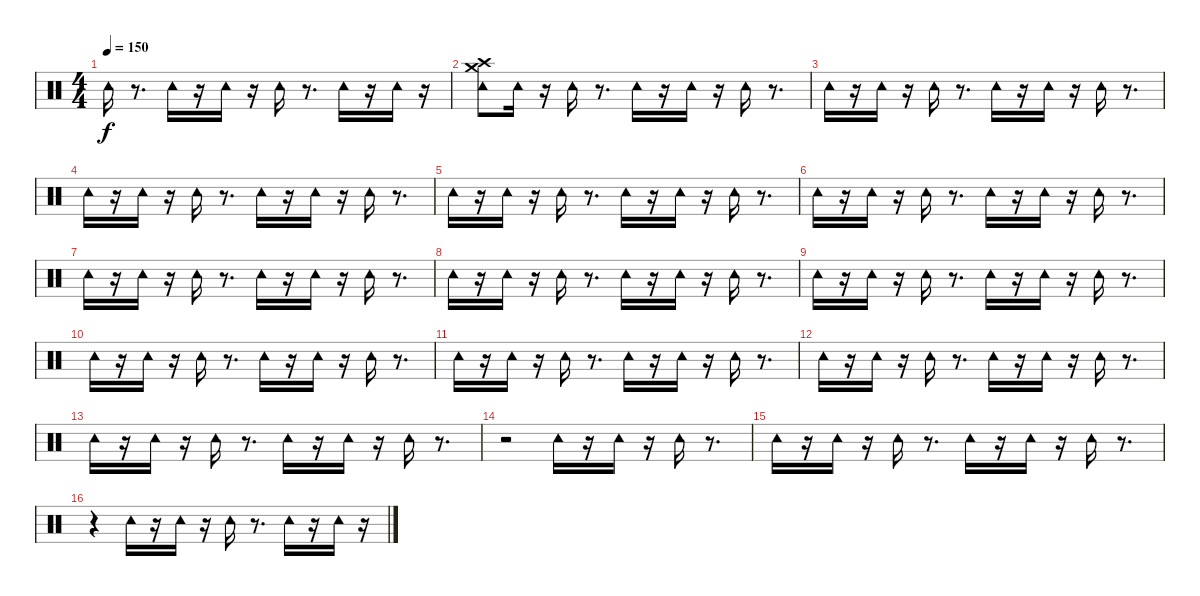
\track "" {instrument percussion}
\staff {score}
\articulation defaults
\ts (4 4)
\tempo 150
\clef neutral
\ks c "Tambourine (hit)".16{dy f}
r.8{d} "Tambourine (hit)".16 r.16 "Tambourine (hit)".16 r.16 "Tambourine (hit)".16 r.8{d} "Tambourine (hit)".16 r.16 "Tambourine (hit)".16 r.16 |
("Crash medium (hit)" "Crash high (hit)" "Tambourine (hit)").8 "Tambourine (hit)".16 r.16 "Tambourine (hit)".16 r.8{d} "Tambourine (hit)".16 r.16 "Tambourine (hit)".16 r.16 "Tambourine (hit)".16 r.8{d} |
"Tambourine (hit)".16 r.16 "Tambourine (hit)".16 r.16 "Tambourine (hit)".16 r.8{d} "Tambourine (hit)".16 r.16 "Tambourine (hit)".16 r.16 "Tambourine (hit)".16 r.8{d} |
"Tambourine (hit)".16 r.16 "Tambourine (hit)".16 r.16 "Tambourine (hit)".16 r.8{d} "Tambourine (hit)".16 r.16 "Tambourine (hit)".16 r.16 "Tambourine (hit)".16 r.8{d} |
"Tambourine (hit)".16 r.16 "Tambourine (hit)".16 r.16 "Tambourine (hit)".16 r.8{d} "Tambourine (hit)".16 r.16 "Tambourine (hit)".16 r.16 "Tambourine (hit)".16 r.8{d} |
"Tambourine (hit)".16 r.16 "Tambourine (hit)".16 r.16 "Tambourine (hit)".16 r.8{d} "Tambourine (hit)".16 r.16 "Tambourine (hit)".16 r.16 "Tambourine (hit)".16 r.8{d} |
"Tambourine (hit)".16 r.16 "Tambourine (hit)".16 r.16 "Tambourine (hit)".16 r.8{d} "Tambourine (hit)".16 r.16 "Tambourine (hit)".16 r.16 "Tambourine (hit)".16 r.8{d} |
"Tambourine (hit)".16 r.16 "Tambourine (hit)".16 r.16 "Tambourine (hit)".16 r.8{d} "Tambourine (hit)".16 r.16 "Tambourine (hit)".16 r.16 "Tambourine (hit)".16 r.8{d} |
"Tambourine (hit)".16 r.16 "Tambourine (hit)".16 r.16 "Tambourine (hit)".16 r.8{d} "Tambourine (hit)".16 r.16 "Tambourine (hit)".16 r.16 "Tambourine (hit)".16 r.8{d} |
"Tambourine (hit)".16 r.16 "Tambourine (hit)".16 r.16 "Tambourine (hit)".16 r.8{d} "Tambourine (hit)".16 r.16 "Tambourine (hit)".16 r.16 "Tambourine (hit)".16 r.8{d} |
"Tambourine (hit)".16 r.16 "Tambourine (hit)".16 r.16 "Tambourine (hit)".16 r.8{d} "Tambourine (hit)".16 r.16 "Tambourine (hit)".16 r.16 "Tambourine (hit)".16 r.8{d} |
"Tambourine (hit)".16 r.16 "Tambourine (hit)".16 r.16 "Tambourine (hit)".16 r.8{d} "Tambourine (hit)".16 r.16 "Tambourine (hit)".16 r.16 "Tambourine (hit)".16 r.8{d} |
"Tambourine (hit)".16 r.16 "Tambourine (hit)".16 r.16 "Tambourine (hit)".16 r.8{d} "Tambourine (hit)".16 r.16 "Tambourine (hit)".16 r.16 "Tambourine (hit)".16 r.8{d} |
r.2 "Tambourine (hit)".16 r.16 "Tambourine (hit)".16 r.16 "Tambourine (hit)".16 r.8{d} |
"Tambourine (hit)".16 r.16 "Tambourine (hit)".16 r.16 "Tambourine (hit)".16 r.8{d} "Tambourine (hit)".16 r.16 "Tambourine (hit)".16 r.16 "Tambourine (hit)".16 r.8{d} |
r.4 "Tambourine (hit)".16 r.16 "Tambourine (hit)".16 r.16 "Tambourine (hit)".16 r.8{d} "Tambourine (hit)".16 r.16 "Tambourine (hit)".16 r.16
